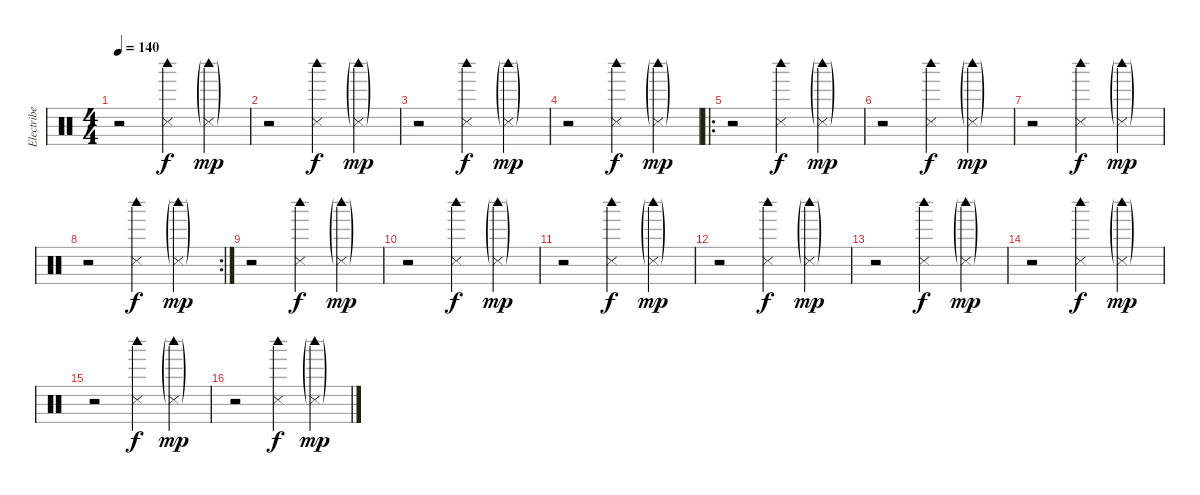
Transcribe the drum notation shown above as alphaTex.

\track ("Electribe Click" "Electribe ") {instrument percussion}
\staff {score}
\articulation defaults
\ts (4 4)
\tempo 140
\clef neutral
\ks c
r.2{dy mp} ("Woodblock high (hit)" "Snare (side stick) 3").4{dy f} ("Woodblock high (hit)"{g} "Snare (side stick) 3"{g}).4{dy mp} |
r.2 ("Woodblock high (hit)" "Snare (side stick) 3").4{dy f} ("Woodblock high (hit)"{g} "Snare (side stick) 3"{g}).4{dy mp} |
r.2 ("Woodblock high (hit)" "Snare (side stick) 3").4{dy f} ("Woodblock high (hit)"{g} "Snare (side stick) 3"{g}).4{dy mp} |
r.2 ("Woodblock high (hit)" "Snare (side stick) 3").4{dy f} ("Woodblock high (hit)"{g} "Snare (side stick) 3"{g}).4{dy mp} |
\ro
r.2 ("Woodblock high (hit)" "Snare (side stick) 3").4{dy f} ("Woodblock high (hit)"{g} "Snare (side stick) 3"{g}).4{dy mp} |
r.2 ("Woodblock high (hit)" "Snare (side stick) 3").4{dy f} ("Woodblock high (hit)"{g} "Snare (side stick) 3"{g}).4{dy mp} |
r.2 ("Woodblock high (hit)" "Snare (side stick) 3").4{dy f} ("Woodblock high (hit)"{g} "Snare (side stick) 3"{g}).4{dy mp} |
\rc 2
r.2 ("Woodblock high (hit)" "Snare (side stick) 3").4{dy f} ("Woodblock high (hit)"{g} "Snare (side stick) 3"{g}).4{dy mp} |
r.2 ("Woodblock high (hit)" "Snare (side stick) 3").4{dy f} ("Woodblock high (hit)"{g} "Snare (side stick) 3"{g}).4{dy mp} |
r.2 ("Woodblock high (hit)" "Snare (side stick) 3").4{dy f} ("Woodblock high (hit)"{g} "Snare (side stick) 3"{g}).4{dy mp} |
r.2 ("Woodblock high (hit)" "Snare (side stick) 3").4{dy f} ("Woodblock high (hit)"{g} "Snare (side stick) 3"{g}).4{dy mp} |
r.2 ("Woodblock high (hit)" "Snare (side stick) 3").4{dy f} ("Woodblock high (hit)"{g} "Snare (side stick) 3"{g}).4{dy mp} |
r.2 ("Woodblock high (hit)" "Snare (side stick) 3").4{dy f} ("Woodblock high (hit)"{g} "Snare (side stick) 3"{g}).4{dy mp} |
r.2 ("Woodblock high (hit)" "Snare (side stick) 3").4{dy f} ("Woodblock high (hit)"{g} "Snare (side stick) 3"{g}).4{dy mp} |
r.2 ("Woodblock high (hit)" "Snare (side stick) 3").4{dy f} ("Woodblock high (hit)"{g} "Snare (side stick) 3"{g}).4{dy mp} |
r.2 ("Woodblock high (hit)" "Snare (side stick) 3").4{dy f} ("Woodblock high (hit)"{g} "Snare (side stick) 3"{g}).4{dy mp}
